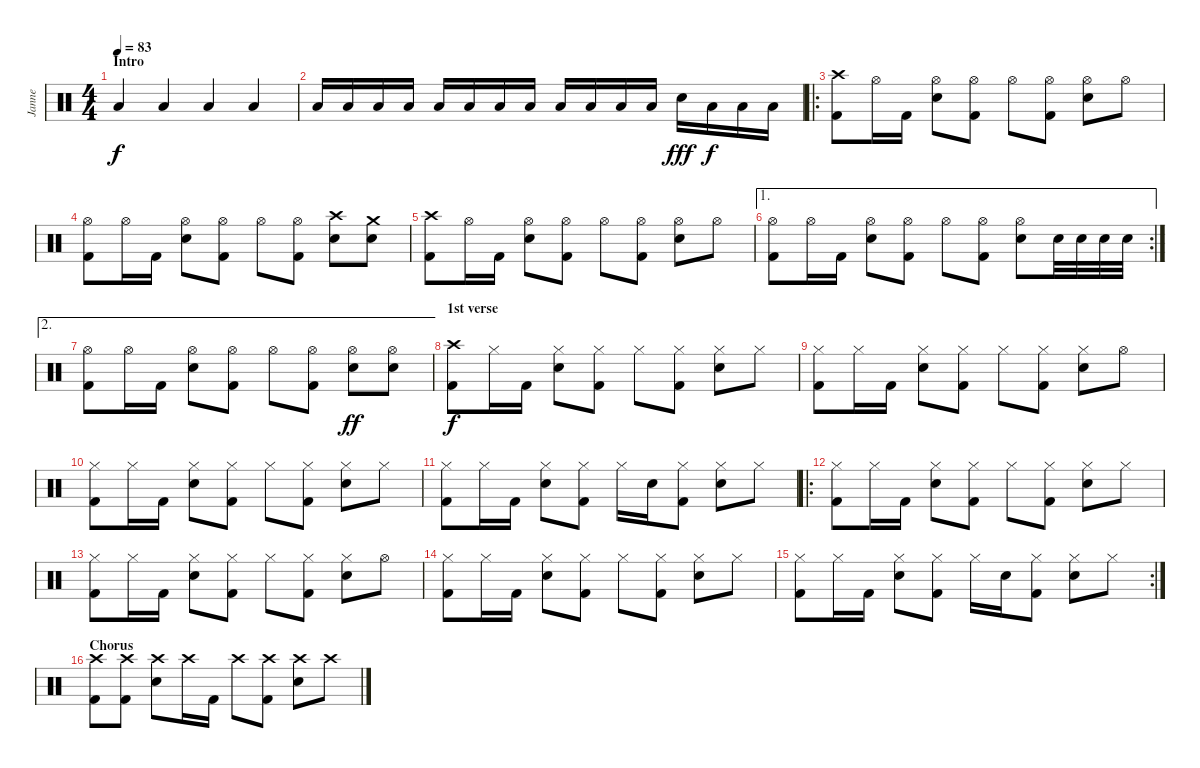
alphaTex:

\track ("Janne" "Janne") {instrument percussion}
\staff {score}
\articulation defaults
\ts (4 4)
\section ("" "Intro")
\tempo 83
\clef neutral
\ks c "Low Floor Tom (hit)".4{dy f volume 9} "Low Floor Tom (hit)".4 "Low Floor Tom (hit)".4 "Low Floor Tom (hit)".4
|
"Low Floor Tom (hit)".16 "Low Floor Tom (hit)".16 "Low Floor Tom (hit)".16 "Low Floor Tom (hit)".16 "Low Floor Tom (hit)".16 "Low Floor Tom (hit)".16 "Low Floor Tom (hit)".16 "Low Floor Tom (hit)".16 "Low Floor Tom (hit)".16 "Low Floor Tom (hit)".16 "Low Floor Tom (hit)".16 "Low Floor Tom (hit)".16 "Electric Snare (hit)".16{dy fff} "Low Floor Tom (hit)".16{dy f} "Low Floor Tom (hit)".16 "Low Floor Tom (hit)".16 |
\ro
("Crash high (hit)" "Kick (hit) 2").8{volume 13} "Hi-Hat (open)".16 "Kick (hit) 2".16 ("Hi-Hat (open)" "Electric Snare (hit)").8 ("Hi-Hat (open)" "Kick (hit) 2").8 "Hi-Hat (open)".8 ("Hi-Hat (open)" "Kick (hit) 2").8 ("Hi-Hat (open)" "Electric Snare (hit)").8 "Hi-Hat (open)".8 |
("Hi-Hat (open)" "Kick (hit) 2").8 "Hi-Hat (open)".16 "Kick (hit) 2".16 ("Hi-Hat (open)" "Electric Snare (hit)").8 ("Hi-Hat (open)" "Kick (hit) 2").8 "Hi-Hat (open)".8 ("Hi-Hat (open)" "Kick (hit) 2").8 ("Crash high (hit)" "Electric Snare (hit)").8 ("Crash medium (hit)" "Electric Snare (hit)").8 |
("Crash high (hit)" "Kick (hit) 2").8 "Hi-Hat (open)".16 "Kick (hit) 2".16 ("Hi-Hat (open)" "Electric Snare (hit)").8 ("Hi-Hat (open)" "Kick (hit) 2").8 "Hi-Hat (open)".8 ("Hi-Hat (open)" "Kick (hit) 2").8 ("Hi-Hat (open)" "Electric Snare (hit)").8 "Hi-Hat (open)".8 |
\ae 1
\rc 2
("Hi-Hat (open)" "Kick (hit) 2").8 "Hi-Hat (open)".16 "Kick (hit) 2".16 ("Hi-Hat (open)" "Electric Snare (hit)").8 ("Hi-Hat (open)" "Kick (hit) 2").8 "Hi-Hat (open)".8 ("Hi-Hat (open)" "Kick (hit) 2").8 ("Hi-Hat (open)" "Electric Snare (hit)").8 "Electric Snare (hit)".32 "Electric Snare (hit)".32 "Electric Snare (hit)".32 "Electric Snare (hit)".32 |
\ae 2
("Hi-Hat (open)" "Kick (hit) 2").8 "Hi-Hat (open)".16 "Kick (hit) 2".16 ("Hi-Hat (open)" "Electric Snare (hit)").8 ("Hi-Hat (open)" "Kick (hit) 2").8 "Hi-Hat (open)".8 ("Hi-Hat (open)" "Kick (hit) 2").8 ("Hi-Hat (open)" "Electric Snare (hit)").8{dy ff} ("Hi-Hat (open)" "Electric Snare (hit)").8 |
\section ("" "1st verse")
("Crash high (hit)" "Kick (hit) 2").8{dy f} "Hi-Hat (closed)".16 "Kick (hit) 2".16 ("Hi-Hat (closed)" "Electric Snare (hit)").8 ("Hi-Hat (closed)" "Kick (hit) 2").8 "Hi-Hat (closed)".8 ("Hi-Hat (closed)" "Kick (hit) 2").8 ("Hi-Hat (closed)" "Electric Snare (hit)").8 "Hi-Hat (closed)".8 |
("Hi-Hat (closed)" "Kick (hit) 2").8 "Hi-Hat (closed)".16 "Kick (hit) 2".16 ("Hi-Hat (closed)" "Electric Snare (hit)").8 ("Hi-Hat (closed)" "Kick (hit) 2").8 "Hi-Hat (closed)".8 ("Hi-Hat (closed)" "Kick (hit) 2").8 ("Hi-Hat (closed)" "Electric Snare (hit)").8 "Hi-Hat (open)".8 |
("Hi-Hat (closed)" "Kick (hit) 2").8 "Hi-Hat (closed)".16 "Kick (hit) 2".16 ("Hi-Hat (closed)" "Electric Snare (hit)").8 ("Hi-Hat (closed)" "Kick (hit) 2").8 "Hi-Hat (closed)".8 ("Hi-Hat (closed)" "Kick (hit) 2").8 ("Hi-Hat (closed)" "Electric Snare (hit)").8 "Hi-Hat (closed)".8 |
("Hi-Hat (closed)" "Kick (hit) 2").8 "Hi-Hat (closed)".16 "Kick (hit) 2".16 ("Hi-Hat (closed)" "Electric Snare (hit)").8 ("Hi-Hat (closed)" "Kick (hit) 2").8 "Hi-Hat (closed)".16 "Electric Snare (hit)".16 ("Hi-Hat (closed)" "Kick (hit) 2").8 ("Hi-Hat (closed)" "Electric Snare (hit)").8 "Hi-Hat (closed)".8 |
\ro
("Hi-Hat (closed)" "Kick (hit) 2").8 "Hi-Hat (closed)".16 "Kick (hit) 2".16 ("Hi-Hat (closed)" "Electric Snare (hit)").8 ("Hi-Hat (closed)" "Kick (hit) 2").8 "Hi-Hat (closed)".8 ("Hi-Hat (closed)" "Kick (hit) 2").8 ("Hi-Hat (closed)" "Electric Snare (hit)").8 "Hi-Hat (closed)".8 |
("Hi-Hat (closed)" "Kick (hit) 2").8 "Hi-Hat (closed)".16 "Kick (hit) 2".16 ("Hi-Hat (closed)" "Electric Snare (hit)").8 ("Hi-Hat (closed)" "Kick (hit) 2").8 "Hi-Hat (closed)".8 ("Hi-Hat (closed)" "Kick (hit) 2").8 ("Hi-Hat (closed)" "Electric Snare (hit)").8 "Hi-Hat (open)".8 |
("Hi-Hat (closed)" "Kick (hit) 2").8 "Hi-Hat (closed)".16 "Kick (hit) 2".16 ("Hi-Hat (closed)" "Electric Snare (hit)").8 ("Hi-Hat (closed)" "Kick (hit) 2").8 "Hi-Hat (closed)".8 ("Hi-Hat (closed)" "Kick (hit) 2").8 ("Hi-Hat (closed)" "Electric Snare (hit)").8 "Hi-Hat (closed)".8 |
\rc 2
("Hi-Hat (closed)" "Kick (hit) 2").8 "Hi-Hat (closed)".16 "Kick (hit) 2".16 ("Hi-Hat (closed)" "Electric Snare (hit)").8 ("Hi-Hat (closed)" "Kick (hit) 2").8 "Hi-Hat (closed)".16 "Electric Snare (hit)".16 ("Hi-Hat (closed)" "Kick (hit) 2").8 ("Hi-Hat (closed)" "Electric Snare (hit)").8 "Hi-Hat (closed)".8 |
\section ("" "Chorus")
("Crash high (hit)" "Kick (hit) 2").8 ("Crash high (hit)" "Kick (hit) 2").8 ("Crash high (hit)" "Electric Snare (hit)").8 "Crash high (hit)".16 "Kick (hit) 2".16 "Crash high (hit)".8 ("Crash high (hit)" "Kick (hit) 2").8 ("Crash high (hit)" "Electric Snare (hit)").8 "Crash high (hit)".8
